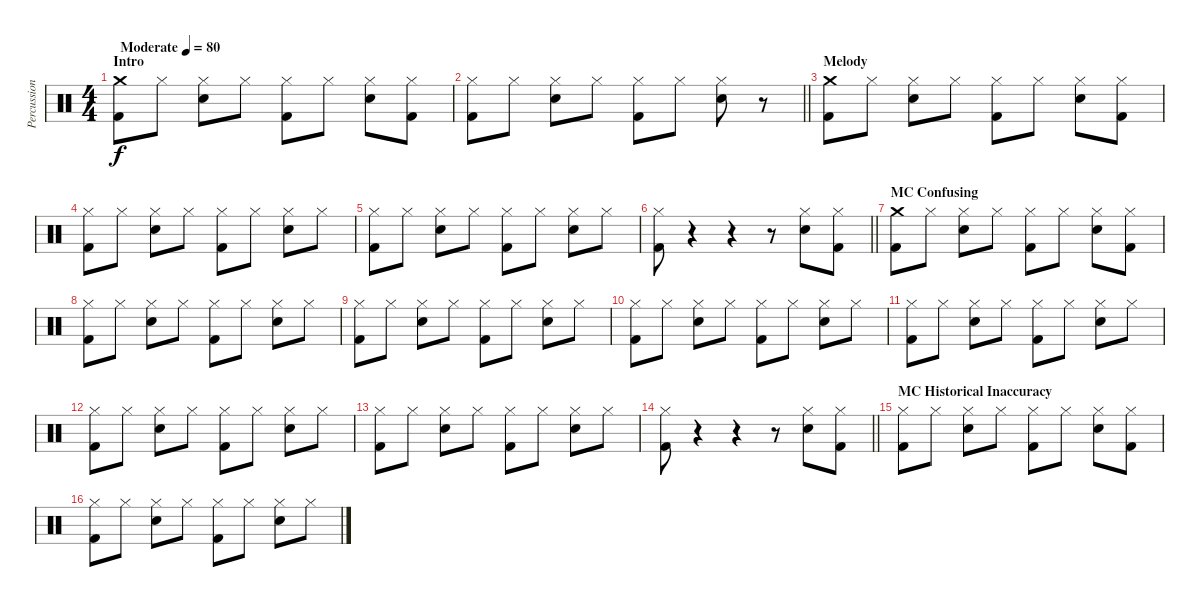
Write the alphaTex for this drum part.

\track ("Percussion" "Percussion") {instrument percussion}
\staff {score}
\articulation defaults
\ts (4 4)
\section ("" "Intro")
\tempo (80 "Moderate")
\clef neutral
\ks c
("Crash medium (hit)" "Kick (hit) 2").8{dy f} "Hi-Hat (closed)".8 ("Hi-Hat (closed)" "Snare (hit) 2").8 "Hi-Hat (closed)".8 ("Hi-Hat (closed)" "Kick (hit) 2").8 "Hi-Hat (closed)".8 ("Hi-Hat (closed)" "Snare (hit) 2").8 ("Hi-Hat (closed)" "Kick (hit) 2").8 |
\barLineRight lightlight
("Hi-Hat (closed)" "Kick (hit) 2").8 "Hi-Hat (closed)".8 ("Hi-Hat (closed)" "Snare (hit) 2").8 "Hi-Hat (closed)".8 ("Hi-Hat (closed)" "Kick (hit) 2").8 "Hi-Hat (closed)".8 ("Hi-Hat (closed)" "Snare (hit) 2").8 r.8 |
\section ("" "Melody")
("Crash medium (hit)" "Kick (hit) 2").8 "Hi-Hat (closed)".8 ("Hi-Hat (closed)" "Snare (hit) 2").8 "Hi-Hat (closed)".8 ("Hi-Hat (closed)" "Kick (hit) 2").8 "Hi-Hat (closed)".8 ("Hi-Hat (closed)" "Snare (hit) 2").8 ("Hi-Hat (closed)" "Kick (hit) 2").8 |
("Hi-Hat (closed)" "Kick (hit) 2").8 "Hi-Hat (closed)".8 ("Hi-Hat (closed)" "Snare (hit) 2").8 "Hi-Hat (closed)".8 ("Hi-Hat (closed)" "Kick (hit) 2").8 "Hi-Hat (closed)".8 ("Hi-Hat (closed)" "Snare (hit) 2").8 "Hi-Hat (closed)".8 |
("Hi-Hat (closed)" "Kick (hit) 2").8 "Hi-Hat (closed)".8 ("Hi-Hat (closed)" "Snare (hit) 2").8 "Hi-Hat (closed)".8 ("Hi-Hat (closed)" "Kick (hit) 2").8 "Hi-Hat (closed)".8 ("Hi-Hat (closed)" "Snare (hit) 2").8 "Hi-Hat (closed)".8 |
\barLineRight lightlight
("Hi-Hat (closed)" "Kick (hit) 2").8 r.4 r.4 r.8 ("Hi-Hat (closed)" "Snare (hit) 2").8 ("Hi-Hat (closed)" "Kick (hit) 2").8 |
\section ("" "MC Confusing")
("Crash medium (hit)" "Kick (hit) 2").8 "Hi-Hat (closed)".8 ("Hi-Hat (closed)" "Snare (hit) 2").8 "Hi-Hat (closed)".8 ("Hi-Hat (closed)" "Kick (hit) 2").8 "Hi-Hat (closed)".8 ("Hi-Hat (closed)" "Snare (hit) 2").8 ("Hi-Hat (closed)" "Kick (hit) 2").8 |
("Hi-Hat (closed)" "Kick (hit) 2").8 "Hi-Hat (closed)".8 ("Hi-Hat (closed)" "Snare (hit) 2").8 "Hi-Hat (closed)".8 ("Hi-Hat (closed)" "Kick (hit) 2").8 "Hi-Hat (closed)".8 ("Hi-Hat (closed)" "Snare (hit) 2").8 "Hi-Hat (closed)".8 |
("Hi-Hat (closed)" "Kick (hit) 2").8 "Hi-Hat (closed)".8 ("Hi-Hat (closed)" "Snare (hit) 2").8 "Hi-Hat (closed)".8 ("Hi-Hat (closed)" "Kick (hit) 2").8 "Hi-Hat (closed)".8 ("Hi-Hat (closed)" "Snare (hit) 2").8 "Hi-Hat (closed)".8 |
("Hi-Hat (closed)" "Kick (hit) 2").8 "Hi-Hat (closed)".8 ("Hi-Hat (closed)" "Snare (hit) 2").8 "Hi-Hat (closed)".8 ("Hi-Hat (closed)" "Kick (hit) 2").8 "Hi-Hat (closed)".8 ("Hi-Hat (closed)" "Snare (hit) 2").8 "Hi-Hat (closed)".8 |
("Hi-Hat (closed)" "Kick (hit) 2").8 "Hi-Hat (closed)".8 ("Hi-Hat (closed)" "Snare (hit) 2").8 "Hi-Hat (closed)".8 ("Hi-Hat (closed)" "Kick (hit) 2").8 "Hi-Hat (closed)".8 ("Hi-Hat (closed)" "Snare (hit) 2").8 "Hi-Hat (closed)".8 |
("Hi-Hat (closed)" "Kick (hit) 2").8 "Hi-Hat (closed)".8 ("Hi-Hat (closed)" "Snare (hit) 2").8 "Hi-Hat (closed)".8 ("Hi-Hat (closed)" "Kick (hit) 2").8 "Hi-Hat (closed)".8 ("Hi-Hat (closed)" "Snare (hit) 2").8 "Hi-Hat (closed)".8 |
("Hi-Hat (closed)" "Kick (hit) 2").8 "Hi-Hat (closed)".8 ("Hi-Hat (closed)" "Snare (hit) 2").8 "Hi-Hat (closed)".8 ("Hi-Hat (closed)" "Kick (hit) 2").8 "Hi-Hat (closed)".8 ("Hi-Hat (closed)" "Snare (hit) 2").8 "Hi-Hat (closed)".8 |
\barLineRight lightlight
("Hi-Hat (closed)" "Kick (hit) 2").8 r.4 r.4 r.8 ("Hi-Hat (closed)" "Snare (hit) 2").8 ("Hi-Hat (closed)" "Kick (hit) 2").8 |
\section ("" "MC Historical Inaccuracy")
("Hi-Hat (closed)" "Kick (hit) 2").8 "Hi-Hat (closed)".8 ("Hi-Hat (closed)" "Snare (hit) 2").8 "Hi-Hat (closed)".8 ("Hi-Hat (closed)" "Kick (hit) 2").8 "Hi-Hat (closed)".8 ("Hi-Hat (closed)" "Snare (hit) 2").8 ("Hi-Hat (closed)" "Kick (hit) 2").8 |
("Hi-Hat (closed)" "Kick (hit) 2").8 "Hi-Hat (closed)".8 ("Hi-Hat (closed)" "Snare (hit) 2").8 "Hi-Hat (closed)".8 ("Hi-Hat (closed)" "Kick (hit) 2").8 "Hi-Hat (closed)".8 ("Hi-Hat (closed)" "Snare (hit) 2").8 "Hi-Hat (closed)".8
